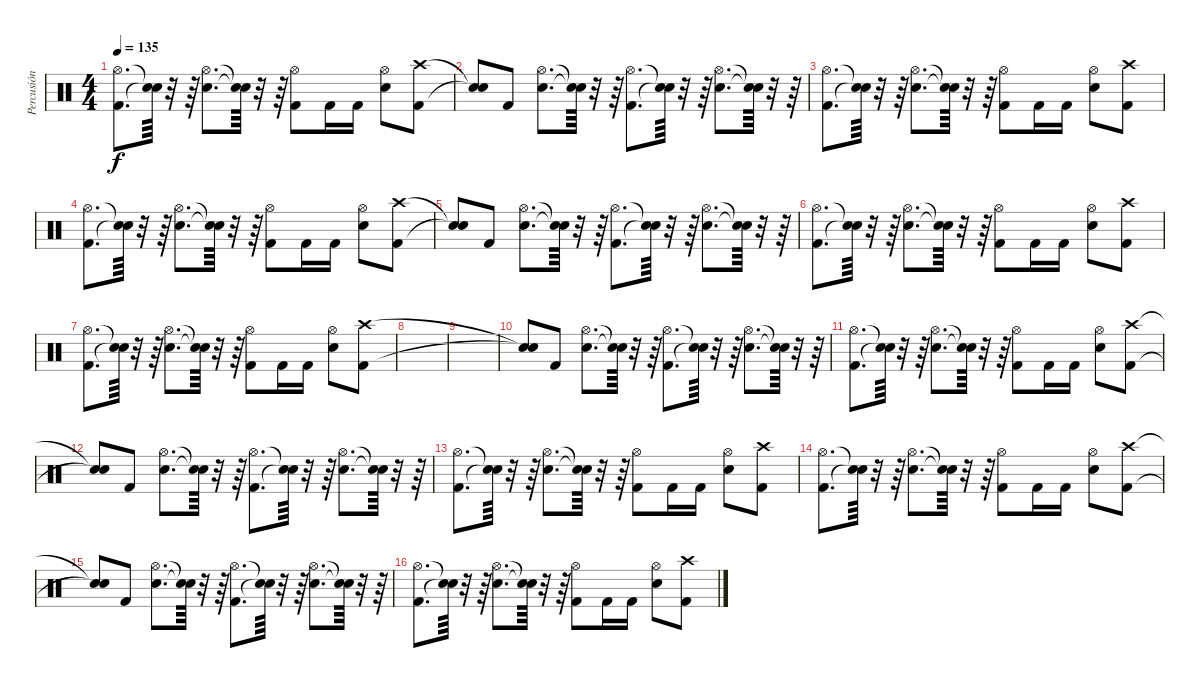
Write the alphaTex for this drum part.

\track ("Percusión" "Percusión") {instrument percussion}
\staff {score}
\articulation defaults
\ts (4 4)
\tempo 135
\clef neutral
\ks c
("Kick (hit) 2" "Hi-Hat (open)").8{d dy f} ("Snare (hit)"{t} "Snare (hit)"{t}).64 r.32 r.64 ("Snare (hit) 2" "Hi-Hat (open)").8{d} ("Snare (hit)"{t} "Snare (hit)"{t}).64 r.32 r.64 ("Kick (hit) 2" "Hi-Hat (open)").8 "Kick (hit) 2".16 "Kick (hit) 2".16 ("Snare (hit) 2" "Hi-Hat (open)").8 ("Kick (hit) 2" "Crash high (hit)").8 |
("Snare (hit)"{t} "Snare (hit)"{t}).8 "Kick (hit) 2".8 ("Snare (hit) 2" "Hi-Hat (open)").8{d} ("Snare (hit)"{t} "Snare (hit)"{t}).64 r.32 r.64 ("Kick (hit) 2" "Hi-Hat (open)").8{d} ("Snare (hit)"{t} "Snare (hit)"{t}).64 r.32 r.64 ("Snare (hit) 2" "Hi-Hat (open)").8{d} ("Snare (hit)"{t} "Snare (hit)"{t}).64 r.32 r.64 |
("Kick (hit) 2" "Hi-Hat (open)").8{d} ("Snare (hit)"{t} "Snare (hit)"{t}).64 r.32 r.64 ("Snare (hit) 2" "Hi-Hat (open)").8{d} ("Snare (hit)"{t} "Snare (hit)"{t}).64 r.32 r.64 ("Kick (hit) 2" "Hi-Hat (open)").8 "Kick (hit) 2".16 "Kick (hit) 2".16 ("Snare (hit) 2" "Hi-Hat (open)").8 ("Kick (hit) 2" "Crash high (hit)").8 |
("Kick (hit) 2" "Hi-Hat (open)").8{d} ("Snare (hit)"{t} "Snare (hit)"{t}).64 r.32 r.64 ("Snare (hit) 2" "Hi-Hat (open)").8{d} ("Snare (hit)"{t} "Snare (hit)"{t}).64 r.32 r.64 ("Kick (hit) 2" "Hi-Hat (open)").8 "Kick (hit) 2".16 "Kick (hit) 2".16 ("Snare (hit) 2" "Hi-Hat (open)").8 ("Kick (hit) 2" "Crash high (hit)").8 |
("Snare (hit)"{t} "Snare (hit)"{t}).8 "Kick (hit) 2".8 ("Snare (hit) 2" "Hi-Hat (open)").8{d} ("Snare (hit)"{t} "Snare (hit)"{t}).64 r.32 r.64 ("Kick (hit) 2" "Hi-Hat (open)").8{d} ("Snare (hit)"{t} "Snare (hit)"{t}).64 r.32 r.64 ("Snare (hit) 2" "Hi-Hat (open)").8{d} ("Snare (hit)"{t} "Snare (hit)"{t}).64 r.32 r.64 |
("Kick (hit) 2" "Hi-Hat (open)").8{d} ("Snare (hit)"{t} "Snare (hit)"{t}).64 r.32 r.64 ("Snare (hit) 2" "Hi-Hat (open)").8{d} ("Snare (hit)"{t} "Snare (hit)"{t}).64 r.32 r.64 ("Kick (hit) 2" "Hi-Hat (open)").8 "Kick (hit) 2".16 "Kick (hit) 2".16 ("Snare (hit) 2" "Hi-Hat (open)").8 ("Kick (hit) 2" "Crash high (hit)").8 |
("Kick (hit) 2" "Hi-Hat (open)").8{d} ("Snare (hit)"{t} "Snare (hit)"{t}).64 r.32 r.64 ("Snare (hit) 2" "Hi-Hat (open)").8{d} ("Snare (hit)"{t} "Snare (hit)"{t}).64 r.32 r.64 ("Kick (hit) 2" "Hi-Hat (open)").8 "Kick (hit) 2".16 "Kick (hit) 2".16 ("Snare (hit) 2" "Hi-Hat (open)").8 ("Kick (hit) 2" "Crash high (hit)").8 |
|
|
("Snare (hit)"{t} "Snare (hit)"{t}).8 "Kick (hit) 2".8 ("Snare (hit) 2" "Hi-Hat (open)").8{d} ("Snare (hit)"{t} "Snare (hit)"{t}).64 r.32 r.64 ("Kick (hit) 2" "Hi-Hat (open)").8{d} ("Snare (hit)"{t} "Snare (hit)"{t}).64 r.32 r.64 ("Snare (hit) 2" "Hi-Hat (open)").8{d} ("Snare (hit)"{t} "Snare (hit)"{t}).64 r.32 r.64 |
("Kick (hit) 2" "Hi-Hat (open)").8{d} ("Snare (hit)"{t} "Snare (hit)"{t}).64 r.32 r.64 ("Snare (hit) 2" "Hi-Hat (open)").8{d} ("Snare (hit)"{t} "Snare (hit)"{t}).64 r.32 r.64 ("Kick (hit) 2" "Hi-Hat (open)").8 "Kick (hit) 2".16 "Kick (hit) 2".16 ("Snare (hit) 2" "Hi-Hat (open)").8 ("Kick (hit) 2" "Crash high (hit)").8 |
("Snare (hit)"{t} "Snare (hit)"{t}).8 "Kick (hit) 2".8 ("Snare (hit) 2" "Hi-Hat (open)").8{d} ("Snare (hit)"{t} "Snare (hit)"{t}).64 r.32 r.64 ("Kick (hit) 2" "Hi-Hat (open)").8{d} ("Snare (hit)"{t} "Snare (hit)"{t}).64 r.32 r.64 ("Snare (hit) 2" "Hi-Hat (open)").8{d} ("Snare (hit)"{t} "Snare (hit)"{t}).64 r.32 r.64 |
("Kick (hit) 2" "Hi-Hat (open)").8{d} ("Snare (hit)"{t} "Snare (hit)"{t}).64 r.32 r.64 ("Snare (hit) 2" "Hi-Hat (open)").8{d} ("Snare (hit)"{t} "Snare (hit)"{t}).64 r.32 r.64 ("Kick (hit) 2" "Hi-Hat (open)").8 "Kick (hit) 2".16 "Kick (hit) 2".16 ("Snare (hit) 2" "Hi-Hat (open)").8 ("Kick (hit) 2" "Crash high (hit)").8 |
("Kick (hit) 2" "Hi-Hat (open)").8{d} ("Snare (hit)"{t} "Snare (hit)"{t}).64 r.32 r.64 ("Snare (hit) 2" "Hi-Hat (open)").8{d} ("Snare (hit)"{t} "Snare (hit)"{t}).64 r.32 r.64 ("Kick (hit) 2" "Hi-Hat (open)").8 "Kick (hit) 2".16 "Kick (hit) 2".16 ("Snare (hit) 2" "Hi-Hat (open)").8 ("Kick (hit) 2" "Crash high (hit)").8 |
("Snare (hit)"{t} "Snare (hit)"{t}).8 "Kick (hit) 2".8 ("Snare (hit) 2" "Hi-Hat (open)").8{d} ("Snare (hit)"{t} "Snare (hit)"{t}).64 r.32 r.64 ("Kick (hit) 2" "Hi-Hat (open)").8{d} ("Snare (hit)"{t} "Snare (hit)"{t}).64 r.32 r.64 ("Snare (hit) 2" "Hi-Hat (open)").8{d} ("Snare (hit)"{t} "Snare (hit)"{t}).64 r.32 r.64 |
("Kick (hit) 2" "Hi-Hat (open)").8{d} ("Snare (hit)"{t} "Snare (hit)"{t}).64 r.32 r.64 ("Snare (hit) 2" "Hi-Hat (open)").8{d} ("Snare (hit)"{t} "Snare (hit)"{t}).64 r.32 r.64 ("Kick (hit) 2" "Hi-Hat (open)").8 "Kick (hit) 2".16 "Kick (hit) 2".16 ("Snare (hit) 2" "Hi-Hat (open)").8 ("Kick (hit) 2" "Crash high (hit)").8
